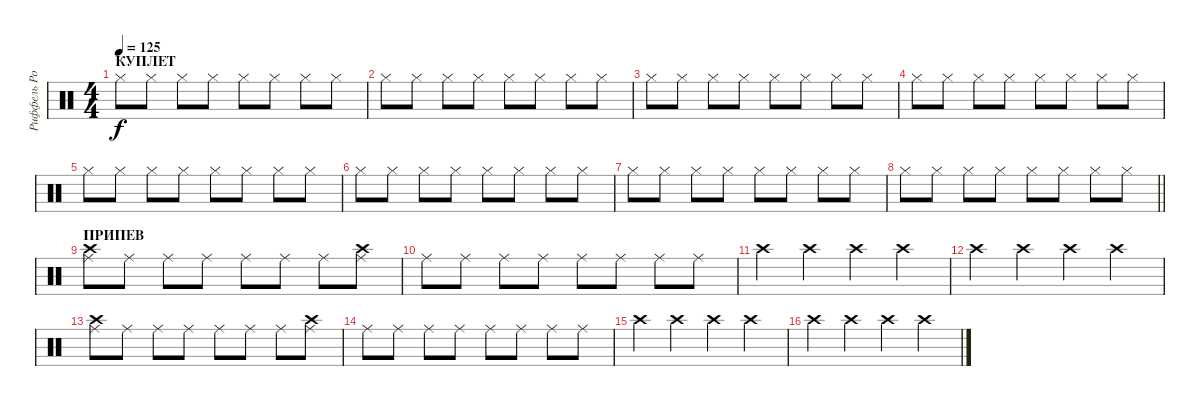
\track ("Риффель Роман(хэты)" "Риффель Ро") {instrument percussion}
\staff {score}
\articulation defaults
\ts (4 4)
\section ("" "КУПЛЕТ")
\tempo 125
\clef neutral
\ks c "Hi-Hat (closed)".8{dy f} "Hi-Hat (closed)".8 "Hi-Hat (closed)".8 "Hi-Hat (closed)".8 "Hi-Hat (closed)".8 "Hi-Hat (closed)".8 "Hi-Hat (closed)".8 "Hi-Hat (closed)".8
|
"Hi-Hat (closed)".8 "Hi-Hat (closed)".8 "Hi-Hat (closed)".8 "Hi-Hat (closed)".8 "Hi-Hat (closed)".8 "Hi-Hat (closed)".8 "Hi-Hat (closed)".8 "Hi-Hat (closed)".8 |
"Hi-Hat (closed)".8 "Hi-Hat (closed)".8 "Hi-Hat (closed)".8 "Hi-Hat (closed)".8 "Hi-Hat (closed)".8 "Hi-Hat (closed)".8 "Hi-Hat (closed)".8 "Hi-Hat (closed)".8 |
"Hi-Hat (closed)".8 "Hi-Hat (closed)".8 "Hi-Hat (closed)".8 "Hi-Hat (closed)".8 "Hi-Hat (closed)".8 "Hi-Hat (closed)".8 "Hi-Hat (closed)".8 "Hi-Hat (closed)".8 |
"Hi-Hat (closed)".8 "Hi-Hat (closed)".8 "Hi-Hat (closed)".8 "Hi-Hat (closed)".8 "Hi-Hat (closed)".8 "Hi-Hat (closed)".8 "Hi-Hat (closed)".8 "Hi-Hat (closed)".8 |
"Hi-Hat (closed)".8 "Hi-Hat (closed)".8 "Hi-Hat (closed)".8 "Hi-Hat (closed)".8 "Hi-Hat (closed)".8 "Hi-Hat (closed)".8 "Hi-Hat (closed)".8 "Hi-Hat (closed)".8 |
"Hi-Hat (closed)".8 "Hi-Hat (closed)".8 "Hi-Hat (closed)".8 "Hi-Hat (closed)".8 "Hi-Hat (closed)".8 "Hi-Hat (closed)".8 "Hi-Hat (closed)".8 "Hi-Hat (closed)".8 |
\barLineRight lightlight "Hi-Hat (closed)".8 "Hi-Hat (closed)".8 "Hi-Hat (closed)".8 "Hi-Hat (closed)".8 "Hi-Hat (closed)".8 "Hi-Hat (closed)".8 "Hi-Hat (closed)".8 "Hi-Hat (closed)".8
|
\section ("" "ПРИПЕВ")
("Ride (middle)" "Crash high (hit)").8 "Ride (middle)".8 "Ride (middle)".8 "Ride (middle)".8 "Ride (middle)".8 "Ride (middle)".8 "Ride (middle)".8 ("Ride (middle)" "Crash high (hit)").8 |
"Ride (middle)".8 "Ride (middle)".8 "Ride (middle)".8 "Ride (middle)".8 "Ride (middle)".8 "Ride (middle)".8 "Ride (middle)".8 "Ride (middle)".8 |
"Crash high (hit)".4 "Crash high (hit)".4 "Crash high (hit)".4 "Crash high (hit)".4 |
"Crash high (hit)".4 "Crash high (hit)".4 "Crash high (hit)".4 "Crash high (hit)".4 |
("Ride (middle)" "Crash high (hit)").8 "Ride (middle)".8 "Ride (middle)".8 "Ride (middle)".8 "Ride (middle)".8 "Ride (middle)".8 "Ride (middle)".8 ("Ride (middle)" "Crash high (hit)").8 |
"Ride (middle)".8 "Ride (middle)".8 "Ride (middle)".8 "Ride (middle)".8 "Ride (middle)".8 "Ride (middle)".8 "Ride (middle)".8 "Ride (middle)".8 |
"Crash high (hit)".4 "Crash high (hit)".4 "Crash high (hit)".4 "Crash high (hit)".4 |
"Crash high (hit)".4 "Crash high (hit)".4 "Crash high (hit)".4 "Crash high (hit)".4
